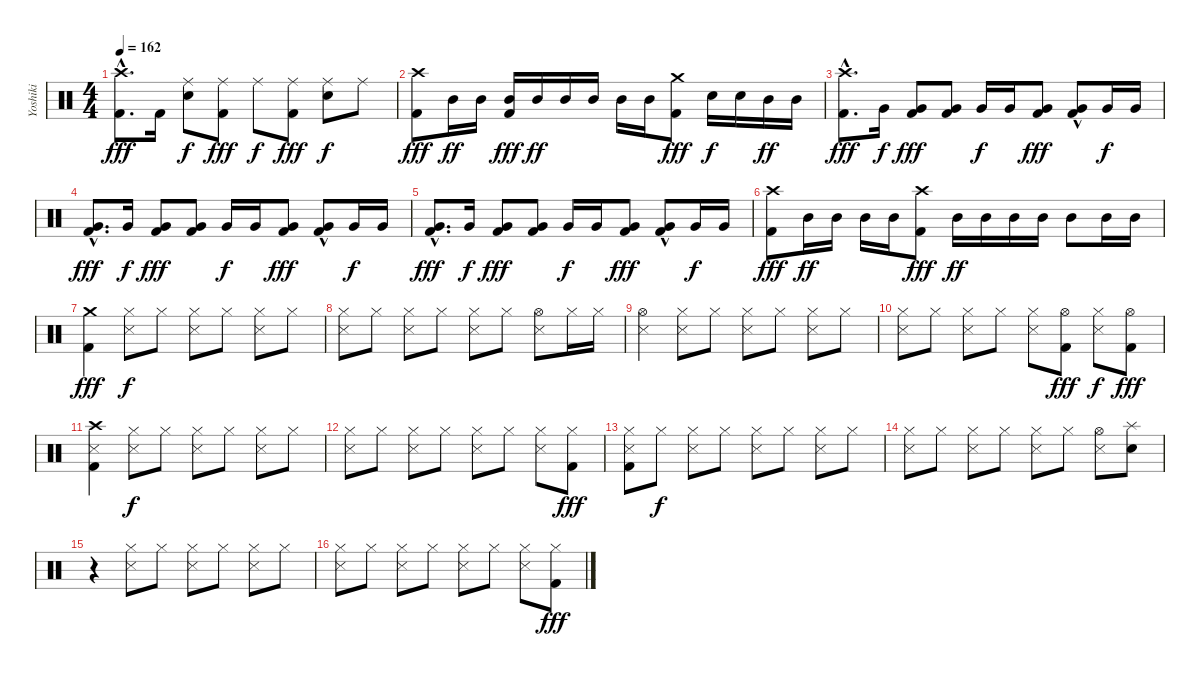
\track ("Yoshiki" "Yoshiki") {instrument percussion}
\staff {score}
\articulation defaults
\ts (4 4)
\tempo 162
\clef neutral
\ks c
("Crash high (hit)"{hac} "Kick (hit) 2"{hac}).8{d dy fff} "Kick (hit) 2".16 ("Ride (middle)" "Electric Snare (hit)").8{dy f} ("Ride (middle)" "Kick (hit) 2").8{dy fff} "Ride (middle)".8{dy f} ("Ride (middle)" "Kick (hit) 2").8{dy fff} ("Ride (middle)" "Electric Snare (hit)").8{dy f} "Ride (middle)".8 |
("Crash high (hit)" "Kick (hit) 2").8{dy fff} "Mid Tom (hit)".16{dy ff} "Mid Tom (hit)".16 ("Mid Tom (hit)" "Kick (hit) 2").16{dy fff} "Mid Tom (hit)".16{dy ff} "Mid Tom (hit)".16 "Mid Tom (hit)".16 "Mid Tom (hit)".16 "Mid Tom (hit)".16 ("Crash medium (hit)" "Kick (hit) 2").8{dy fff} "Electric Snare (hit)".16{dy f} "Electric Snare (hit)".16 "Mid Tom (hit)".16{dy ff} "Mid Tom (hit)".16 |
("Crash high (hit)" "Kick (hit) 2"{hac}).8{d dy fff} "Very Low Tom (hit)".16{dy f} ("Very Low Tom (hit)" "Kick (hit) 2").8{dy fff} ("Very Low Tom (hit)" "Kick (hit) 2").8 "Very Low Tom (hit)".16{dy f} "Very Low Tom (hit)".16 ("Very Low Tom (hit)" "Kick (hit) 2").8{dy fff} ("Very Low Tom (hit)"{hac} "Kick (hit) 2").8 "Very Low Tom (hit)".16{dy f} "Very Low Tom (hit)".16 |
("Very Low Tom (hit)"{hac} "Kick (hit) 2"{hac}).8{d dy fff} "Very Low Tom (hit)".16{dy f} ("Very Low Tom (hit)" "Kick (hit) 2").8{dy fff} ("Very Low Tom (hit)" "Kick (hit) 2").8 "Very Low Tom (hit)".16{dy f} "Very Low Tom (hit)".16 ("Very Low Tom (hit)" "Kick (hit) 2").8{dy fff} ("Very Low Tom (hit)"{hac} "Kick (hit) 2").8 "Very Low Tom (hit)".16{dy f} "Very Low Tom (hit)".16 |
("Very Low Tom (hit)"{hac} "Kick (hit) 2"{hac}).8{d dy fff} "Very Low Tom (hit)".16{dy f} ("Very Low Tom (hit)" "Kick (hit) 2").8{dy fff} ("Very Low Tom (hit)" "Kick (hit) 2").8 "Very Low Tom (hit)".16{dy f} "Very Low Tom (hit)".16 ("Very Low Tom (hit)" "Kick (hit) 2").8{dy fff} ("Very Low Tom (hit)"{hac} "Kick (hit) 2").8 "Very Low Tom (hit)".16{dy f} "Very Low Tom (hit)".16 |
("Crash high (hit)" "Kick (hit) 2").8{dy fff} "Mid Tom (hit)".16{dy ff} "Mid Tom (hit)".16 "Mid Tom (hit)".16 "Mid Tom (hit)".16 ("Crash high (hit)" "Kick (hit) 2").8{dy fff} "Mid Tom (hit)".16{dy ff} "Mid Tom (hit)".16 "Mid Tom (hit)".16 "Mid Tom (hit)".16 "Mid Tom (hit)".8 "Mid Tom (hit)".16 "Mid Tom (hit)".16 |
("Crash medium (hit)" "Kick (hit) 2").4{dy fff} ("Hi-Hat (closed)" "Snare (side stick) 3").8{dy f} "Hi-Hat (closed)".8 ("Hi-Hat (closed)" "Snare (side stick) 3").8 "Hi-Hat (closed)".8 ("Hi-Hat (closed)" "Snare (side stick) 3").8 "Hi-Hat (closed)".8 |
("Hi-Hat (closed)" "Snare (side stick) 3").8 "Hi-Hat (closed)".8 ("Hi-Hat (closed)" "Snare (side stick) 3").8 "Hi-Hat (closed)".8 ("Hi-Hat (closed)" "Snare (side stick) 3").8 "Hi-Hat (closed)".8 ("Hi-Hat (open)" "Snare (side stick) 3").8 "Hi-Hat (closed)".16 "Hi-Hat (closed)".16 |
("Hi-Hat (open)" "Snare (side stick) 3").4 ("Hi-Hat (closed)" "Snare (side stick) 3").8 "Hi-Hat (closed)".8 ("Hi-Hat (closed)" "Snare (side stick) 3").8 "Hi-Hat (closed)".8 ("Hi-Hat (closed)" "Snare (side stick) 3").8 "Hi-Hat (closed)".8 |
("Hi-Hat (closed)" "Snare (side stick) 3").8 "Hi-Hat (closed)".8 ("Hi-Hat (closed)" "Snare (side stick) 3").8 "Hi-Hat (closed)".8 ("Hi-Hat (closed)" "Snare (side stick) 3").8 ("Hi-Hat (open)" "Kick (hit) 2").8{dy fff} ("Hi-Hat (closed)" "Snare (side stick) 3").8{dy f} ("Hi-Hat (open)" "Kick (hit) 2").8{dy fff} |
("Crash high (hit)" "Snare (side stick) 3" "Kick (hit) 2").4 ("Hi-Hat (closed)" "Snare (side stick) 3").8{dy f} "Hi-Hat (closed)".8 ("Hi-Hat (closed)" "Snare (side stick) 3").8 "Hi-Hat (closed)".8 ("Hi-Hat (closed)" "Snare (side stick) 3").8 "Hi-Hat (closed)".8 |
("Hi-Hat (closed)" "Snare (side stick) 3").8 "Hi-Hat (closed)".8 ("Hi-Hat (closed)" "Snare (side stick) 3").8 "Hi-Hat (closed)".8 ("Hi-Hat (closed)" "Snare (side stick) 3").8 "Hi-Hat (closed)".8 ("Hi-Hat (closed)" "Snare (side stick) 3").8 ("Hi-Hat (closed)" "Kick (hit) 2").8{dy fff} |
("Hi-Hat (closed)" "Snare (side stick) 3" "Kick (hit) 2").8 "Hi-Hat (closed)".8{dy f} ("Hi-Hat (closed)" "Snare (side stick) 3").8 "Hi-Hat (closed)".8 ("Hi-Hat (closed)" "Snare (side stick) 3").8 "Hi-Hat (closed)".8 ("Hi-Hat (closed)" "Snare (side stick) 3").8 "Hi-Hat (closed)".8 |
("Hi-Hat (closed)" "Snare (side stick) 3").8 "Hi-Hat (closed)".8 ("Hi-Hat (closed)" "Snare (side stick) 3").8 "Hi-Hat (closed)".8 ("Hi-Hat (closed)" "Snare (side stick) 3").8 "Hi-Hat (closed)".8 ("Hi-Hat (open)" "Snare (side stick) 3").8 ("Splash (hit)" "Electric Snare (hit)").8 |
r.4 ("Hi-Hat (closed)" "Snare (side stick) 3").8 "Hi-Hat (closed)".8 ("Hi-Hat (closed)" "Snare (side stick) 3").8 "Hi-Hat (closed)".8 ("Hi-Hat (closed)" "Snare (side stick) 3").8 "Hi-Hat (closed)".8 |
("Hi-Hat (closed)" "Snare (side stick) 3").8 "Hi-Hat (closed)".8 ("Hi-Hat (closed)" "Snare (side stick) 3").8 "Hi-Hat (closed)".8 ("Hi-Hat (closed)" "Snare (side stick) 3").8 "Hi-Hat (closed)".8 ("Hi-Hat (closed)" "Snare (side stick) 3").8 ("Hi-Hat (closed)" "Kick (hit) 2").8{dy fff}
